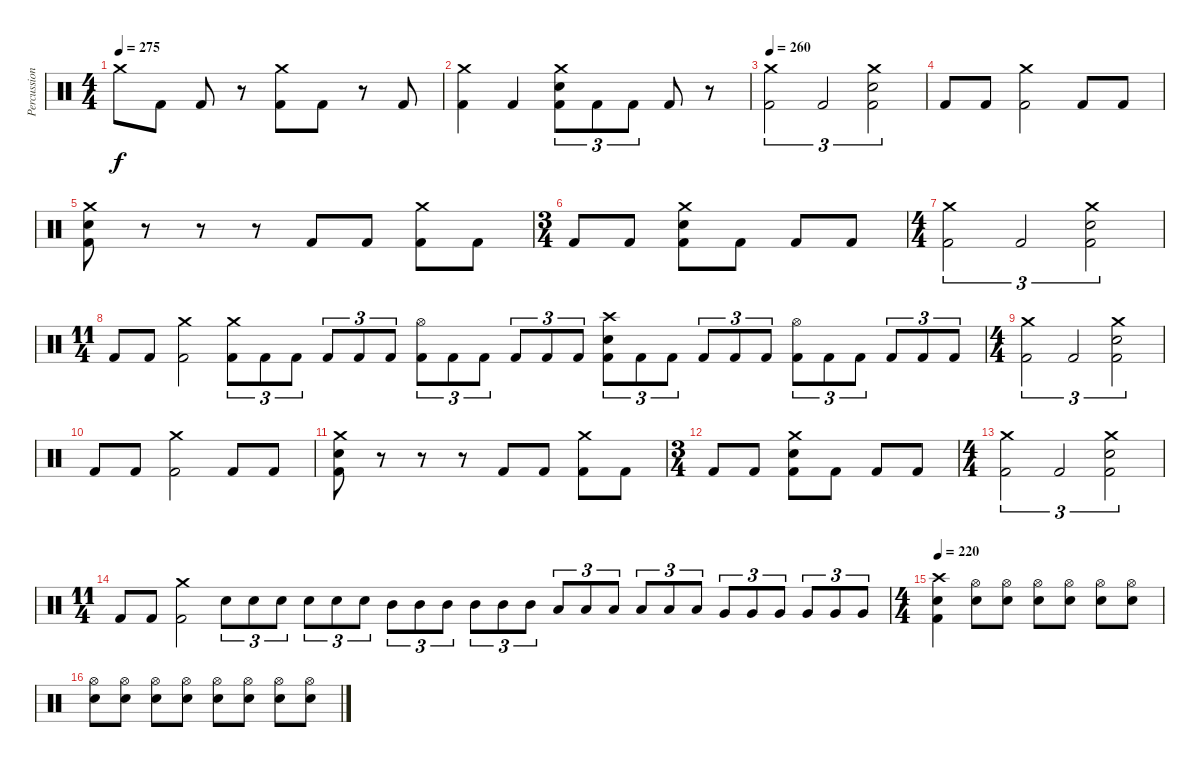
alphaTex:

\track ("Percussion" "Percussion") {instrument percussion}
\staff {score}
\articulation defaults
\ts (4 4)
\tempo 275
\clef neutral
\ks c "Crash medium (hit)".8{dy f} "Kick (hit) 2".8 "Kick (hit) 2".8
r.8 ("Crash medium (hit)" "Kick (hit) 2").8 "Kick (hit) 2".8 r.8 "Kick (hit) 2".8 |
("Crash medium (hit)" "Kick (hit) 2").4 "Kick (hit) 2".4 ("Crash medium (hit)" "Electric Snare (hit)" "Kick (hit) 2").8{tu (3 2)} "Kick (hit) 2".8{tu (3 2)} "Kick (hit) 2".8{tu (3 2)} "Kick (hit) 2".8 r.8 |
\tempo 260
("Crash medium (hit)" "Kick (hit) 2").2{tu (3 2)} "Kick (hit) 2".2{tu (3 2)} ("Crash medium (hit)" "Electric Snare (hit)" "Kick (hit) 2").2{tu (3 2)} |
"Kick (hit) 2".8 "Kick (hit) 2".8 ("Crash medium (hit)" "Kick (hit) 2").2 "Kick (hit) 2".8 "Kick (hit) 2".8 |
("Crash medium (hit)" "Electric Snare (hit)" "Kick (hit) 2").8 r.8 r.8 r.8 "Kick (hit) 2".8 "Kick (hit) 2".8 ("Crash medium (hit)" "Kick (hit) 2").8 "Kick (hit) 2".8 |
\ts (3 4)
"Kick (hit) 2".8 "Kick (hit) 2".8 ("Crash medium (hit)" "Electric Snare (hit)" "Kick (hit) 2").8 "Kick (hit) 2".8 "Kick (hit) 2".8 "Kick (hit) 2".8 |
\ts (4 4)
("Crash medium (hit)" "Kick (hit) 2").2{tu (3 2)} "Kick (hit) 2".2{tu (3 2)} ("Crash medium (hit)" "Electric Snare (hit)" "Kick (hit) 2").2{tu (3 2)} |
\ts (11 4)
"Kick (hit) 2".8 "Kick (hit) 2".8 ("Crash medium (hit)" "Kick (hit) 2").2 ("Crash medium (hit)" "Kick (hit) 2").8{tu (3 2)} "Kick (hit) 2".8{tu (3 2)} "Kick (hit) 2".8{tu (3 2)} "Kick (hit) 2".8{tu (3 2)} "Kick (hit) 2".8{tu (3 2)} "Kick (hit) 2".8{tu (3 2)} ("Hi-Hat (open)" "Kick (hit) 2").8{tu (3 2)} "Kick (hit) 2".8{tu (3 2)} "Kick (hit) 2".8{tu (3 2)} "Kick (hit) 2".8{tu (3 2)} "Kick (hit) 2".8{tu (3 2)} "Kick (hit) 2".8{tu (3 2)} ("Crash high (hit)" "Electric Snare (hit)" "Kick (hit) 2").8{tu (3 2)} "Kick (hit) 2".8{tu (3 2)} "Kick (hit) 2".8{tu (3 2)} "Kick (hit) 2".8{tu (3 2)} "Kick (hit) 2".8{tu (3 2)} "Kick (hit) 2".8{tu (3 2)} ("Hi-Hat (open)" "Kick (hit) 2").8{tu (3 2)} "Kick (hit) 2".8{tu (3 2)} "Kick (hit) 2".8{tu (3 2)} "Kick (hit) 2".8{tu (3 2)} "Kick (hit) 2".8{tu (3 2)} "Kick (hit) 2".8{tu (3 2)} |
\ts (4 4)
("Crash medium (hit)" "Kick (hit) 2").2{tu (3 2)} "Kick (hit) 2".2{tu (3 2)} ("Crash medium (hit)" "Electric Snare (hit)" "Kick (hit) 2").2{tu (3 2)} |
"Kick (hit) 2".8 "Kick (hit) 2".8 ("Crash medium (hit)" "Kick (hit) 2").2 "Kick (hit) 2".8 "Kick (hit) 2".8 |
("Crash medium (hit)" "Electric Snare (hit)" "Kick (hit) 2").8 r.8 r.8 r.8 "Kick (hit) 2".8 "Kick (hit) 2".8 ("Crash medium (hit)" "Kick (hit) 2").8 "Kick (hit) 2".8 |
\ts (3 4)
"Kick (hit) 2".8 "Kick (hit) 2".8 ("Crash medium (hit)" "Electric Snare (hit)" "Kick (hit) 2").8 "Kick (hit) 2".8 "Kick (hit) 2".8 "Kick (hit) 2".8 |
\ts (4 4)
("Crash medium (hit)" "Kick (hit) 2").2{tu (3 2)} "Kick (hit) 2".2{tu (3 2)} ("Crash medium (hit)" "Electric Snare (hit)" "Kick (hit) 2").2{tu (3 2)} |
\ts (11 4)
"Kick (hit) 2".8 "Kick (hit) 2".8 ("Crash medium (hit)" "Kick (hit) 2").2 "Electric Snare (hit)".8{tu (3 2)} "Electric Snare (hit)".8{tu (3 2)} "Electric Snare (hit)".8{tu (3 2)} "Electric Snare (hit)".8{tu (3 2)} "Electric Snare (hit)".8{tu (3 2)} "Electric Snare (hit)".8{tu (3 2)} "Mid Tom (hit)".8{tu (3 2)} "Mid Tom (hit)".8{tu (3 2)} "Mid Tom (hit)".8{tu (3 2)} "Mid Tom (hit)".8{tu (3 2)} "Mid Tom (hit)".8{tu (3 2)} "Mid Tom (hit)".8{tu (3 2)} "Low Tom (hit)".8{tu (3 2)} "Low Tom (hit)".8{tu (3 2)} "Low Tom (hit)".8{tu (3 2)} "Low Tom (hit)".8{tu (3 2)} "Low Tom (hit)".8{tu (3 2)} "Low Tom (hit)".8{tu (3 2)} "Very Low Tom (hit)".8{tu (3 2)} "Very Low Tom (hit)".8{tu (3 2)} "Very Low Tom (hit)".8{tu (3 2)} "Very Low Tom (hit)".8{tu (3 2)} "Very Low Tom (hit)".8{tu (3 2)} "Very Low Tom (hit)".8{tu (3 2)} |
\ts (4 4)
\tempo 220
("Crash high (hit)" "Electric Snare (hit)" "Kick (hit) 2").4 ("Hi-Hat (open)" "Electric Snare (hit)").8 ("Hi-Hat (open)" "Electric Snare (hit)").8 ("Hi-Hat (open)" "Electric Snare (hit)").8 ("Hi-Hat (open)" "Electric Snare (hit)").8 ("Hi-Hat (open)" "Electric Snare (hit)").8 ("Hi-Hat (open)" "Electric Snare (hit)").8 |
("Hi-Hat (open)" "Electric Snare (hit)").8 ("Hi-Hat (open)" "Electric Snare (hit)").8 ("Hi-Hat (open)" "Electric Snare (hit)").8 ("Hi-Hat (open)" "Electric Snare (hit)").8 ("Hi-Hat (open)" "Electric Snare (hit)").8 ("Hi-Hat (open)" "Electric Snare (hit)").8 ("Hi-Hat (open)" "Electric Snare (hit)").8 ("Hi-Hat (open)" "Electric Snare (hit)").8
